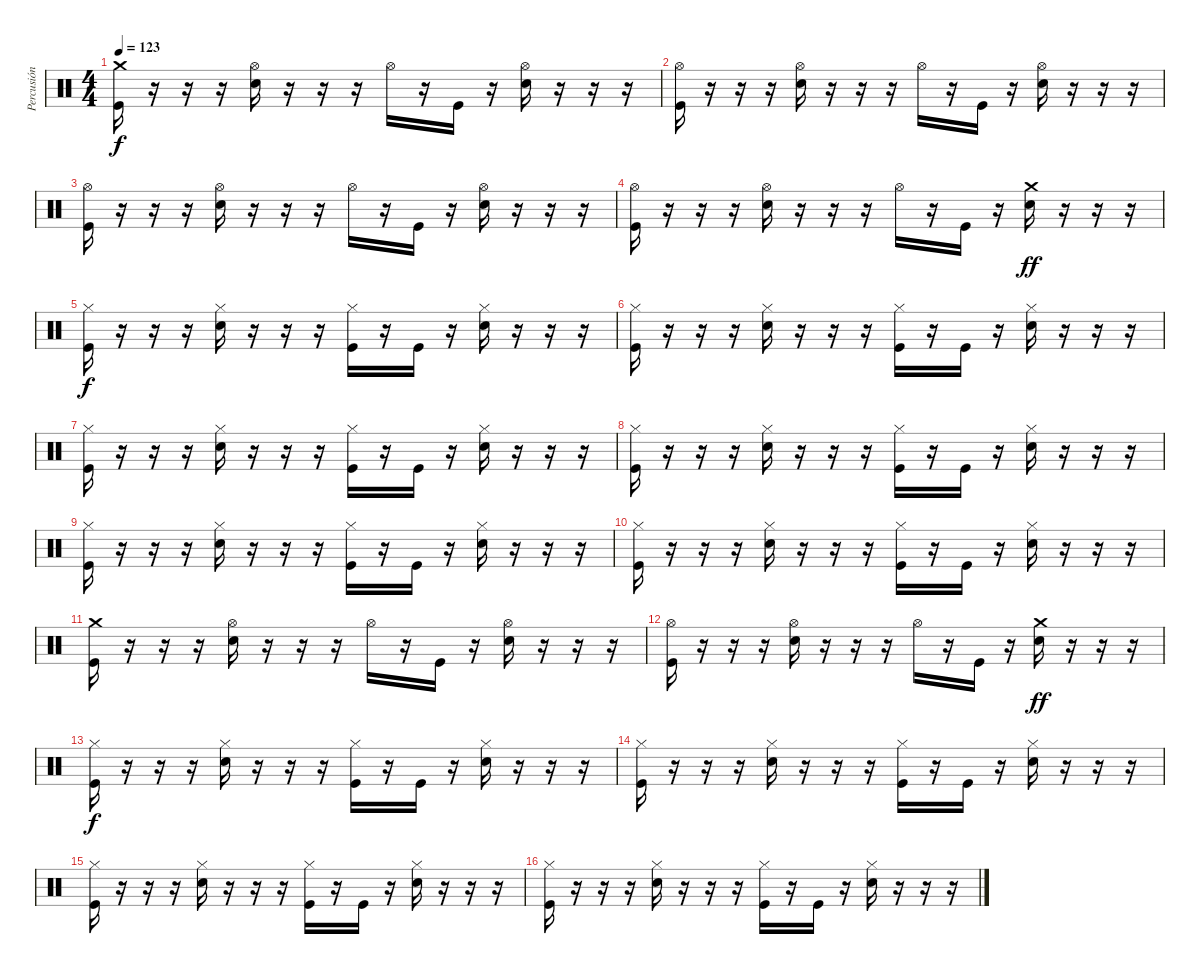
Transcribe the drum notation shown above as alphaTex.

\track ("Percusión" "Percusión") {instrument percussion}
\staff {score}
\articulation defaults
\ts (4 4)
\tempo 123
\clef neutral
\ks c
("Crash medium (hit)" "Kick (hit)").16{dy f} r.16 r.16 r.16 ("Hi-Hat (open)" "Snare (hit) 2").16 r.16 r.16 r.16 "Hi-Hat (open)".16 r.16 "Kick (hit)".16 r.16 ("Hi-Hat (open)" "Snare (hit) 2").16 r.16 r.16 r.16 |
("Hi-Hat (open)" "Kick (hit)").16 r.16 r.16 r.16 ("Hi-Hat (open)" "Snare (hit) 2").16 r.16 r.16 r.16 "Hi-Hat (open)".16 r.16 "Kick (hit)".16 r.16 ("Hi-Hat (open)" "Snare (hit) 2").16 r.16 r.16 r.16 |
("Hi-Hat (open)" "Kick (hit)").16 r.16 r.16 r.16 ("Hi-Hat (open)" "Snare (hit) 2").16 r.16 r.16 r.16 "Hi-Hat (open)".16 r.16 "Kick (hit)".16 r.16 ("Hi-Hat (open)" "Snare (hit) 2").16 r.16 r.16 r.16 |
("Hi-Hat (open)" "Kick (hit)").16 r.16 r.16 r.16 ("Hi-Hat (open)" "Snare (hit) 2").16 r.16 r.16 r.16 "Hi-Hat (open)".16 r.16 "Kick (hit)".16 r.16 ("Crash medium (hit)" "Snare (hit) 2").16{dy ff} r.16 r.16 r.16 |
("Hi-Hat (closed)" "Kick (hit)").16{dy f} r.16 r.16 r.16 ("Hi-Hat (closed)" "Snare (hit) 2").16 r.16 r.16 r.16 ("Hi-Hat (closed)" "Kick (hit)").16 r.16 "Kick (hit)".16 r.16 ("Hi-Hat (closed)" "Snare (hit) 2").16 r.16 r.16 r.16 |
("Hi-Hat (closed)" "Kick (hit)").16 r.16 r.16 r.16 ("Hi-Hat (closed)" "Snare (hit) 2").16 r.16 r.16 r.16 ("Hi-Hat (closed)" "Kick (hit)").16 r.16 "Kick (hit)".16 r.16 ("Hi-Hat (closed)" "Snare (hit) 2").16 r.16 r.16 r.16 |
("Hi-Hat (closed)" "Kick (hit)").16 r.16 r.16 r.16 ("Hi-Hat (closed)" "Snare (hit) 2").16 r.16 r.16 r.16 ("Hi-Hat (closed)" "Kick (hit)").16 r.16 "Kick (hit)".16 r.16 ("Hi-Hat (closed)" "Snare (hit) 2").16 r.16 r.16 r.16 |
("Hi-Hat (closed)" "Kick (hit)").16 r.16 r.16 r.16 ("Hi-Hat (closed)" "Snare (hit) 2").16 r.16 r.16 r.16 ("Hi-Hat (closed)" "Kick (hit)").16 r.16 "Kick (hit)".16 r.16 ("Hi-Hat (closed)" "Snare (hit) 2").16 r.16 r.16 r.16 |
("Hi-Hat (closed)" "Kick (hit)").16 r.16 r.16 r.16 ("Hi-Hat (closed)" "Snare (hit) 2").16 r.16 r.16 r.16 ("Hi-Hat (closed)" "Kick (hit)").16 r.16 "Kick (hit)".16 r.16 ("Hi-Hat (closed)" "Snare (hit) 2").16 r.16 r.16 r.16 |
("Hi-Hat (closed)" "Kick (hit)").16 r.16 r.16 r.16 ("Hi-Hat (closed)" "Snare (hit) 2").16 r.16 r.16 r.16 ("Hi-Hat (closed)" "Kick (hit)").16 r.16 "Kick (hit)".16 r.16 ("Hi-Hat (closed)" "Snare (hit) 2").16 r.16 r.16 r.16 |
("Crash medium (hit)" "Kick (hit)").16 r.16 r.16 r.16 ("Hi-Hat (open)" "Snare (hit) 2").16 r.16 r.16 r.16 "Hi-Hat (open)".16 r.16 "Kick (hit)".16 r.16 ("Hi-Hat (open)" "Snare (hit) 2").16 r.16 r.16 r.16 |
("Hi-Hat (open)" "Kick (hit)").16 r.16 r.16 r.16 ("Hi-Hat (open)" "Snare (hit) 2").16 r.16 r.16 r.16 "Hi-Hat (open)".16 r.16 "Kick (hit)".16 r.16 ("Crash medium (hit)" "Snare (hit) 2").16{dy ff} r.16 r.16 r.16 |
("Hi-Hat (closed)" "Kick (hit)").16{dy f} r.16 r.16 r.16 ("Hi-Hat (closed)" "Snare (hit) 2").16 r.16 r.16 r.16 ("Hi-Hat (closed)" "Kick (hit)").16 r.16 "Kick (hit)".16 r.16 ("Hi-Hat (closed)" "Snare (hit) 2").16 r.16 r.16 r.16 |
("Hi-Hat (closed)" "Kick (hit)").16 r.16 r.16 r.16 ("Hi-Hat (closed)" "Snare (hit) 2").16 r.16 r.16 r.16 ("Hi-Hat (closed)" "Kick (hit)").16 r.16 "Kick (hit)".16 r.16 ("Hi-Hat (closed)" "Snare (hit) 2").16 r.16 r.16 r.16 |
("Hi-Hat (closed)" "Kick (hit)").16 r.16 r.16 r.16 ("Hi-Hat (closed)" "Snare (hit) 2").16 r.16 r.16 r.16 ("Hi-Hat (closed)" "Kick (hit)").16 r.16 "Kick (hit)".16 r.16 ("Hi-Hat (closed)" "Snare (hit) 2").16 r.16 r.16 r.16 |
("Hi-Hat (closed)" "Kick (hit)").16 r.16 r.16 r.16 ("Hi-Hat (closed)" "Snare (hit) 2").16 r.16 r.16 r.16 ("Hi-Hat (closed)" "Kick (hit)").16 r.16 "Kick (hit)".16 r.16 ("Hi-Hat (closed)" "Snare (hit) 2").16 r.16 r.16 r.16
